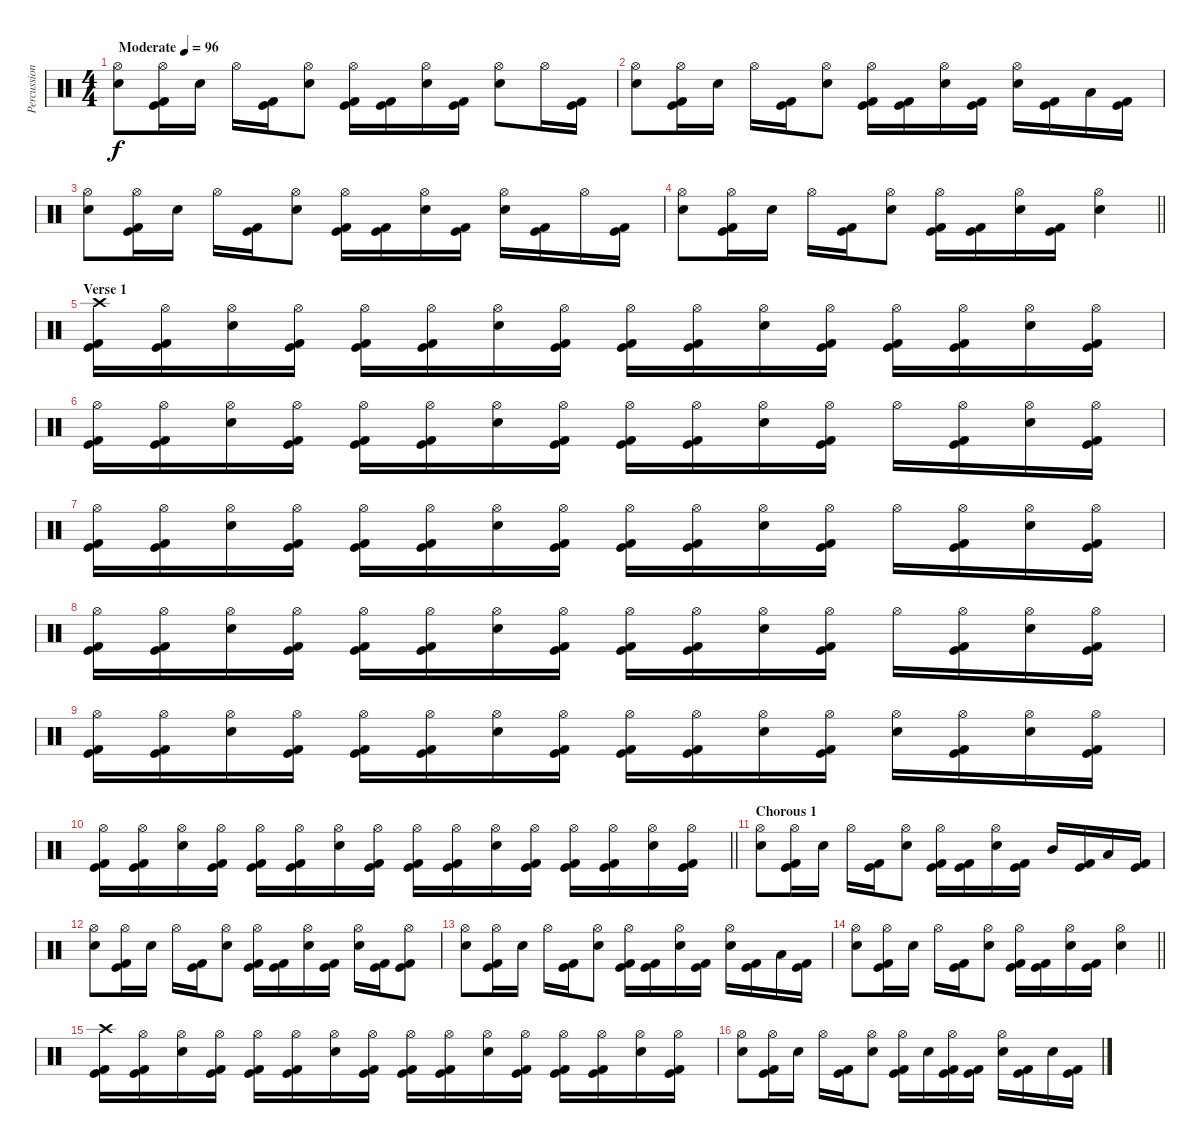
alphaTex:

\track ("Percussion" "Percussion") {instrument percussion}
\staff {score}
\articulation defaults
\ts (4 4)
\tempo (96 "Moderate")
\clef neutral
\ks c
("Hi-Hat (open)" "Electric Snare (hit)").8{dy f} ("Hi-Hat (open)" "Kick (hit)" "Kick (hit) 2").16 "Electric Snare (hit)".16 "Hi-Hat (open)".16 ("Kick (hit)" "Kick (hit) 2").16 ("Hi-Hat (open)" "Electric Snare (hit)").8 ("Hi-Hat (open)" "Kick (hit)" "Kick (hit) 2").16 ("Kick (hit)" "Kick (hit) 2").16 ("Hi-Hat (open)" "Electric Snare (hit)").16 ("Kick (hit)" "Kick (hit) 2").16 ("Hi-Hat (open)" "Electric Snare (hit)").8 "Hi-Hat (open)".16 ("Kick (hit)" "Kick (hit) 2").16 |
("Hi-Hat (open)" "Electric Snare (hit)").8 ("Hi-Hat (open)" "Kick (hit)" "Kick (hit) 2").16 "Electric Snare (hit)".16 "Hi-Hat (open)".16 ("Kick (hit)" "Kick (hit) 2").16 ("Hi-Hat (open)" "Electric Snare (hit)").8 ("Hi-Hat (open)" "Kick (hit)" "Kick (hit) 2").16 ("Kick (hit)" "Kick (hit) 2").16 ("Hi-Hat (open)" "Electric Snare (hit)").16 ("Kick (hit)" "Kick (hit) 2").16 ("Hi-Hat (open)" "Electric Snare (hit)").16 ("Kick (hit)" "Kick (hit) 2").16 "Low Tom (hit)".16 ("Kick (hit)" "Kick (hit) 2").16 |
("Hi-Hat (open)" "Electric Snare (hit)").8 ("Hi-Hat (open)" "Kick (hit)" "Kick (hit) 2").16 "Electric Snare (hit)".16 "Hi-Hat (open)".16 ("Kick (hit)" "Kick (hit) 2").16 ("Hi-Hat (open)" "Electric Snare (hit)").8 ("Hi-Hat (open)" "Kick (hit)" "Kick (hit) 2").16 ("Kick (hit)" "Kick (hit) 2").16 ("Hi-Hat (open)" "Electric Snare (hit)").16 ("Kick (hit)" "Kick (hit) 2").16 ("Hi-Hat (open)" "Electric Snare (hit)").16 ("Kick (hit)" "Kick (hit) 2").16 "Hi-Hat (open)".16 ("Kick (hit)" "Kick (hit) 2").16 |
\barLineRight lightlight
("Hi-Hat (open)" "Electric Snare (hit)").8 ("Hi-Hat (open)" "Kick (hit)" "Kick (hit) 2").16 "Electric Snare (hit)".16 "Hi-Hat (open)".16 ("Kick (hit)" "Kick (hit) 2").16 ("Hi-Hat (open)" "Electric Snare (hit)").8 ("Hi-Hat (open)" "Kick (hit)" "Kick (hit) 2").16 ("Kick (hit)" "Kick (hit) 2").16 ("Hi-Hat (open)" "Electric Snare (hit)").16 ("Kick (hit)" "Kick (hit) 2").16 ("Hi-Hat (open)" "Electric Snare (hit)").4 |
\section ("" "Verse 1")
("Crash high (hit)" "Kick (hit)" "Kick (hit) 2").16 ("Hi-Hat (open)" "Kick (hit)" "Kick (hit) 2").16 ("Hi-Hat (open)" "Electric Snare (hit)").16 ("Hi-Hat (open)" "Kick (hit)" "Kick (hit) 2").16 ("Hi-Hat (open)" "Kick (hit)" "Kick (hit) 2").16 ("Hi-Hat (open)" "Kick (hit)" "Kick (hit) 2").16 ("Hi-Hat (open)" "Electric Snare (hit)").16 ("Hi-Hat (open)" "Kick (hit)" "Kick (hit) 2").16 ("Hi-Hat (open)" "Kick (hit)" "Kick (hit) 2").16 ("Hi-Hat (open)" "Kick (hit)" "Kick (hit) 2").16 ("Hi-Hat (open)" "Electric Snare (hit)").16 ("Hi-Hat (open)" "Kick (hit)" "Kick (hit) 2").16 ("Hi-Hat (open)" "Kick (hit)" "Kick (hit) 2").16 ("Hi-Hat (open)" "Kick (hit)" "Kick (hit) 2").16 ("Hi-Hat (open)" "Electric Snare (hit)").16 ("Hi-Hat (open)" "Kick (hit)" "Kick (hit) 2").16 |
("Hi-Hat (open)" "Kick (hit)" "Kick (hit) 2").16 ("Hi-Hat (open)" "Kick (hit)" "Kick (hit) 2").16 ("Hi-Hat (open)" "Electric Snare (hit)").16 ("Hi-Hat (open)" "Kick (hit)" "Kick (hit) 2").16 ("Hi-Hat (open)" "Kick (hit)" "Kick (hit) 2").16 ("Hi-Hat (open)" "Kick (hit)" "Kick (hit) 2").16 ("Hi-Hat (open)" "Electric Snare (hit)").16 ("Hi-Hat (open)" "Kick (hit)" "Kick (hit) 2").16 ("Hi-Hat (open)" "Kick (hit)" "Kick (hit) 2").16 ("Hi-Hat (open)" "Kick (hit)" "Kick (hit) 2").16 ("Hi-Hat (open)" "Electric Snare (hit)").16 ("Hi-Hat (open)" "Kick (hit)" "Kick (hit) 2").16 "Hi-Hat (open)".16 ("Hi-Hat (open)" "Kick (hit)" "Kick (hit) 2").16 ("Hi-Hat (open)" "Electric Snare (hit)").16 ("Hi-Hat (open)" "Kick (hit)" "Kick (hit) 2").16 |
("Hi-Hat (open)" "Kick (hit)" "Kick (hit) 2").16 ("Hi-Hat (open)" "Kick (hit)" "Kick (hit) 2").16 ("Hi-Hat (open)" "Electric Snare (hit)").16 ("Hi-Hat (open)" "Kick (hit)" "Kick (hit) 2").16 ("Hi-Hat (open)" "Kick (hit)" "Kick (hit) 2").16 ("Hi-Hat (open)" "Kick (hit)" "Kick (hit) 2").16 ("Hi-Hat (open)" "Electric Snare (hit)").16 ("Hi-Hat (open)" "Kick (hit)" "Kick (hit) 2").16 ("Hi-Hat (open)" "Kick (hit)" "Kick (hit) 2").16 ("Hi-Hat (open)" "Kick (hit)" "Kick (hit) 2").16 ("Hi-Hat (open)" "Electric Snare (hit)").16 ("Hi-Hat (open)" "Kick (hit)" "Kick (hit) 2").16 "Hi-Hat (open)".16 ("Hi-Hat (open)" "Kick (hit)" "Kick (hit) 2").16 ("Hi-Hat (open)" "Electric Snare (hit)").16 ("Hi-Hat (open)" "Kick (hit)" "Kick (hit) 2").16 |
("Hi-Hat (open)" "Kick (hit)" "Kick (hit) 2").16 ("Hi-Hat (open)" "Kick (hit)" "Kick (hit) 2").16 ("Hi-Hat (open)" "Electric Snare (hit)").16 ("Hi-Hat (open)" "Kick (hit)" "Kick (hit) 2").16 ("Hi-Hat (open)" "Kick (hit)" "Kick (hit) 2").16 ("Hi-Hat (open)" "Kick (hit)" "Kick (hit) 2").16 ("Hi-Hat (open)" "Electric Snare (hit)").16 ("Hi-Hat (open)" "Kick (hit)" "Kick (hit) 2").16 ("Hi-Hat (open)" "Kick (hit)" "Kick (hit) 2").16 ("Hi-Hat (open)" "Kick (hit)" "Kick (hit) 2").16 ("Hi-Hat (open)" "Electric Snare (hit)").16 ("Hi-Hat (open)" "Kick (hit)" "Kick (hit) 2").16 "Hi-Hat (open)".16 ("Hi-Hat (open)" "Kick (hit)" "Kick (hit) 2").16 ("Hi-Hat (open)" "Electric Snare (hit)").16 ("Hi-Hat (open)" "Kick (hit)" "Kick (hit) 2").16 |
("Hi-Hat (open)" "Kick (hit)" "Kick (hit) 2").16 ("Hi-Hat (open)" "Kick (hit)" "Kick (hit) 2").16 ("Hi-Hat (open)" "Electric Snare (hit)").16 ("Hi-Hat (open)" "Kick (hit)" "Kick (hit) 2").16 ("Hi-Hat (open)" "Kick (hit)" "Kick (hit) 2").16 ("Hi-Hat (open)" "Kick (hit)" "Kick (hit) 2").16 ("Hi-Hat (open)" "Electric Snare (hit)").16 ("Hi-Hat (open)" "Kick (hit)" "Kick (hit) 2").16 ("Hi-Hat (open)" "Kick (hit)" "Kick (hit) 2").16 ("Hi-Hat (open)" "Kick (hit)" "Kick (hit) 2").16 ("Hi-Hat (open)" "Electric Snare (hit)").16 ("Hi-Hat (open)" "Kick (hit)" "Kick (hit) 2").16 ("Hi-Hat (open)" "Electric Snare (hit)").16 ("Hi-Hat (open)" "Kick (hit)" "Kick (hit) 2").16 ("Hi-Hat (open)" "Electric Snare (hit)").16 ("Hi-Hat (open)" "Kick (hit)" "Kick (hit) 2").16 |
\barLineRight lightlight
("Hi-Hat (open)" "Kick (hit)" "Kick (hit) 2").16 ("Hi-Hat (open)" "Kick (hit)" "Kick (hit) 2").16 ("Hi-Hat (open)" "Electric Snare (hit)").16 ("Hi-Hat (open)" "Kick (hit)" "Kick (hit) 2").16 ("Hi-Hat (open)" "Kick (hit)" "Kick (hit) 2").16 ("Hi-Hat (open)" "Kick (hit)" "Kick (hit) 2").16 ("Hi-Hat (open)" "Electric Snare (hit)").16 ("Hi-Hat (open)" "Kick (hit)" "Kick (hit) 2").16 ("Hi-Hat (open)" "Kick (hit)" "Kick (hit) 2").16 ("Hi-Hat (open)" "Kick (hit)" "Kick (hit) 2").16 ("Hi-Hat (open)" "Electric Snare (hit)").16 ("Hi-Hat (open)" "Kick (hit)" "Kick (hit) 2").16 ("Hi-Hat (open)" "Kick (hit)" "Kick (hit) 2").16 ("Hi-Hat (open)" "Kick (hit)" "Kick (hit) 2").16 ("Hi-Hat (open)" "Electric Snare (hit)").16 ("Hi-Hat (open)" "Kick (hit)" "Kick (hit) 2").16 |
\section ("" "Chorous 1")
("Hi-Hat (open)" "Electric Snare (hit)").8 ("Hi-Hat (open)" "Kick (hit)" "Kick (hit) 2").16 "Electric Snare (hit)".16 "Hi-Hat (open)".16 ("Kick (hit)" "Kick (hit) 2").16 ("Hi-Hat (open)" "Electric Snare (hit)").8 ("Hi-Hat (open)" "Kick (hit)" "Kick (hit) 2").16 ("Kick (hit)" "Kick (hit) 2").16 ("Hi-Hat (open)" "Electric Snare (hit)").16 ("Kick (hit)" "Kick (hit) 2").16 "Mid Tom (hit)".16 ("Kick (hit)" "Kick (hit) 2").16 "Low Tom (hit)".16 ("Kick (hit)" "Kick (hit) 2").16 |
("Hi-Hat (open)" "Electric Snare (hit)").8 ("Hi-Hat (open)" "Kick (hit)" "Kick (hit) 2").16 "Electric Snare (hit)".16 "Hi-Hat (open)".16 ("Kick (hit)" "Kick (hit) 2").16 ("Hi-Hat (open)" "Electric Snare (hit)").8 ("Hi-Hat (open)" "Kick (hit)" "Kick (hit) 2").16 ("Kick (hit)" "Kick (hit) 2").16 ("Hi-Hat (open)" "Electric Snare (hit)").16 ("Kick (hit)" "Kick (hit) 2").16 ("Hi-Hat (open)" "Electric Snare (hit)").16 ("Kick (hit)" "Kick (hit) 2").16 ("Hi-Hat (open)" "Kick (hit)" "Kick (hit) 2").8 |
("Hi-Hat (open)" "Electric Snare (hit)").8 ("Hi-Hat (open)" "Kick (hit)" "Kick (hit) 2").16 "Electric Snare (hit)".16 "Hi-Hat (open)".16 ("Kick (hit)" "Kick (hit) 2").16 ("Hi-Hat (open)" "Electric Snare (hit)").8 ("Hi-Hat (open)" "Kick (hit)" "Kick (hit) 2").16 ("Kick (hit)" "Kick (hit) 2").16 ("Hi-Hat (open)" "Electric Snare (hit)").16 ("Kick (hit)" "Kick (hit) 2").16 ("Hi-Hat (open)" "Electric Snare (hit)").16 ("Kick (hit)" "Kick (hit) 2").16 "Low Tom (hit)".16 ("Kick (hit)" "Kick (hit) 2").16 |
\barLineRight lightlight
("Hi-Hat (open)" "Electric Snare (hit)").8 ("Hi-Hat (open)" "Kick (hit)" "Kick (hit) 2").16 "Electric Snare (hit)".16 "Hi-Hat (open)".16 ("Kick (hit)" "Kick (hit) 2").16 ("Hi-Hat (open)" "Electric Snare (hit)").8 ("Hi-Hat (open)" "Kick (hit)" "Kick (hit) 2").16 ("Kick (hit)" "Kick (hit) 2").16 ("Hi-Hat (open)" "Electric Snare (hit)").16 ("Kick (hit)" "Kick (hit) 2").16 ("Hi-Hat (open)" "Electric Snare (hit)").4 |
\section ("" "")
("Crash high (hit)" "Kick (hit)" "Kick (hit) 2").16 ("Hi-Hat (open)" "Kick (hit)" "Kick (hit) 2").16 ("Hi-Hat (open)" "Electric Snare (hit)").16 ("Hi-Hat (open)" "Kick (hit)" "Kick (hit) 2").16 ("Hi-Hat (open)" "Kick (hit)" "Kick (hit) 2").16 ("Hi-Hat (open)" "Kick (hit)" "Kick (hit) 2").16 ("Hi-Hat (open)" "Electric Snare (hit)").16 ("Hi-Hat (open)" "Kick (hit)" "Kick (hit) 2").16 ("Hi-Hat (open)" "Kick (hit)" "Kick (hit) 2").16 ("Hi-Hat (open)" "Kick (hit)" "Kick (hit) 2").16 ("Hi-Hat (open)" "Electric Snare (hit)").16 ("Hi-Hat (open)" "Kick (hit)" "Kick (hit) 2").16 ("Hi-Hat (open)" "Kick (hit)" "Kick (hit) 2").16 ("Hi-Hat (open)" "Kick (hit)" "Kick (hit) 2").16 ("Hi-Hat (open)" "Electric Snare (hit)").16 ("Hi-Hat (open)" "Kick (hit)" "Kick (hit) 2").16 |
("Hi-Hat (open)" "Electric Snare (hit)").8 ("Hi-Hat (open)" "Kick (hit)" "Kick (hit) 2").16 "Electric Snare (hit)".16 "Hi-Hat (open)".16 ("Kick (hit)" "Kick (hit) 2").16 ("Hi-Hat (open)" "Electric Snare (hit)").8 ("Hi-Hat (open)" "Kick (hit)" "Kick (hit) 2").16 "Electric Snare (hit)".16 ("Hi-Hat (open)" "Kick (hit)" "Kick (hit) 2").16 ("Kick (hit)" "Kick (hit) 2").16 ("Hi-Hat (open)" "Electric Snare (hit)").16 ("Kick (hit)" "Kick (hit) 2").16 "Electric Snare (hit)".16 ("Kick (hit)" "Kick (hit) 2").16
